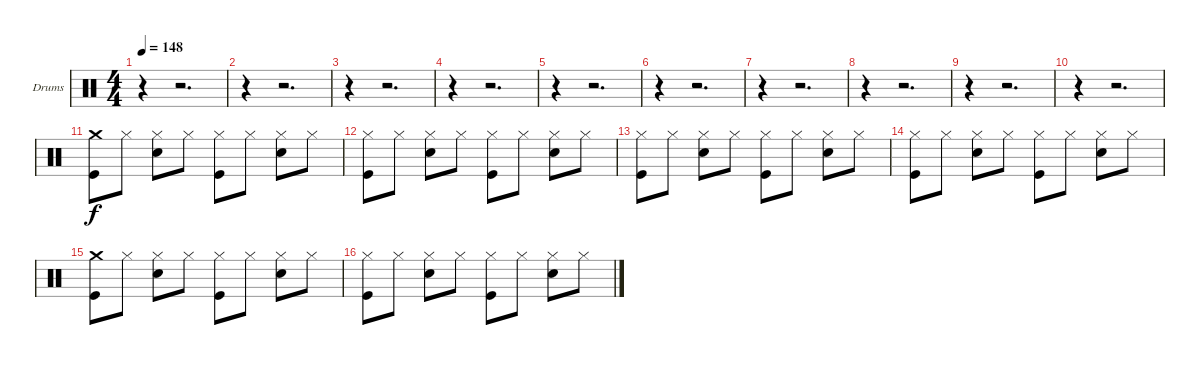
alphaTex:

\defaultSystemsLayout 4
\bracketExtendMode groupsimilarinstruments
\firstSystemTrackNameOrientation horizontal
\otherSystemsTrackNameOrientation horizontal
\track ("Нюта" "Drums") {instrument percussion}
\staff {score}
\articulation defaults
\ts (4 4)
\tempo 148
\clef neutral
\scale
0.474178
\ks c
r.4{dy f} r.2{d} |
\scale
0.262911 r.4 r.2{d} |
\scale
0.262911 r.4 r.2{d} |
\scale
0.333333 r.4 r.2{d} |
\scale
0.333333 r.4 r.2{d} |
\scale
0.333333 r.4 r.2{d} |
\scale
0.333333 r.4 r.2{d} |
\scale
0.333333 r.4 r.2{d} |
\scale
0.333333 r.4 r.2{d} |
\scale
0.333333 r.4 r.2{d} |
\scale
0.333333 ("Crash medium (hit)" "Kick (hit)").8 "Hi-Hat (closed)".8 ("Hi-Hat (closed)" "Snare (hit) 2").8 "Hi-Hat (closed)".8 ("Hi-Hat (closed)" "Kick (hit)").8 "Hi-Hat (closed)".8 ("Hi-Hat (closed)" "Snare (hit) 2").8 "Hi-Hat (closed)".8 |
\scale
0.333333 ("Hi-Hat (closed)" "Kick (hit)").8 "Hi-Hat (closed)".8 ("Hi-Hat (closed)" "Snare (hit) 2").8 "Hi-Hat (closed)".8 ("Hi-Hat (closed)" "Kick (hit)").8 "Hi-Hat (closed)".8 ("Hi-Hat (closed)" "Snare (hit) 2").8 "Hi-Hat (closed)".8 |
\scale
0.333333 ("Hi-Hat (closed)" "Kick (hit)").8 "Hi-Hat (closed)".8 ("Hi-Hat (closed)" "Snare (hit) 2").8 "Hi-Hat (closed)".8 ("Hi-Hat (closed)" "Kick (hit)").8 "Hi-Hat (closed)".8 ("Hi-Hat (closed)" "Snare (hit) 2").8 "Hi-Hat (closed)".8 |
\scale
0.333333 ("Hi-Hat (closed)" "Kick (hit)").8 "Hi-Hat (closed)".8 ("Hi-Hat (closed)" "Snare (hit) 2").8 "Hi-Hat (closed)".8 ("Hi-Hat (closed)" "Kick (hit)").8 "Hi-Hat (closed)".8 ("Hi-Hat (closed)" "Snare (hit) 2").8 "Hi-Hat (closed)".8 |
\scale
0.333333 ("Crash medium (hit)" "Kick (hit)").8 "Hi-Hat (closed)".8 ("Hi-Hat (closed)" "Snare (hit) 2").8 "Hi-Hat (closed)".8 ("Hi-Hat (closed)" "Kick (hit)").8 "Hi-Hat (closed)".8 ("Hi-Hat (closed)" "Snare (hit) 2").8 "Hi-Hat (closed)".8 |
\scale
0.333333 ("Hi-Hat (closed)" "Kick (hit)").8 "Hi-Hat (closed)".8 ("Hi-Hat (closed)" "Snare (hit) 2").8 "Hi-Hat (closed)".8 ("Hi-Hat (closed)" "Kick (hit)").8 "Hi-Hat (closed)".8 ("Hi-Hat (closed)" "Snare (hit) 2").8 "Hi-Hat (closed)".8
